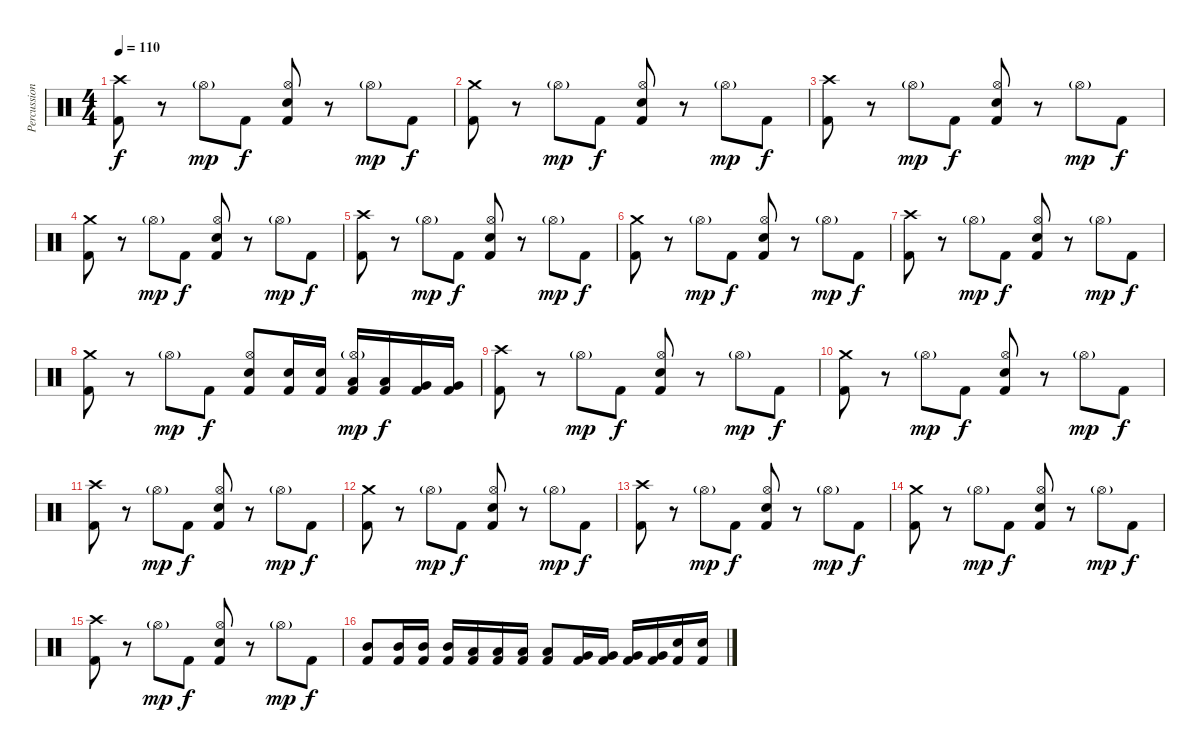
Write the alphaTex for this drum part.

\track ("Percussion" "Percussion") {instrument percussion}
\staff {score}
\articulation defaults
\ts (4 4)
\tempo 110
\clef neutral
\ks c
("Crash high (hit)" "Kick (hit) 2").8{dy f} r.8 "Hi-Hat (open)"{g}.8{dy mp} "Kick (hit) 2".8{dy f} ("Hi-Hat (open)" "Electric Snare (hit)" "Kick (hit) 2").8 r.8 "Hi-Hat (open)"{g}.8{dy mp} "Kick (hit) 2".8{dy f} |
("Crash medium (hit)" "Kick (hit) 2").8 r.8 "Hi-Hat (open)"{g}.8{dy mp} "Kick (hit) 2".8{dy f} ("Hi-Hat (open)" "Electric Snare (hit)" "Kick (hit) 2").8 r.8 "Hi-Hat (open)"{g}.8{dy mp} "Kick (hit) 2".8{dy f} |
("Crash high (hit)" "Kick (hit) 2").8 r.8 "Hi-Hat (open)"{g}.8{dy mp} "Kick (hit) 2".8{dy f} ("Hi-Hat (open)" "Electric Snare (hit)" "Kick (hit) 2").8 r.8 "Hi-Hat (open)"{g}.8{dy mp} "Kick (hit) 2".8{dy f} |
("Crash medium (hit)" "Kick (hit) 2").8 r.8 "Hi-Hat (open)"{g}.8{dy mp} "Kick (hit) 2".8{dy f} ("Hi-Hat (open)" "Electric Snare (hit)" "Kick (hit) 2").8 r.8 "Hi-Hat (open)"{g}.8{dy mp} "Kick (hit) 2".8{dy f} |
("Crash high (hit)" "Kick (hit) 2").8 r.8 "Hi-Hat (open)"{g}.8{dy mp} "Kick (hit) 2".8{dy f} ("Hi-Hat (open)" "Electric Snare (hit)" "Kick (hit) 2").8 r.8 "Hi-Hat (open)"{g}.8{dy mp} "Kick (hit) 2".8{dy f} |
("Crash medium (hit)" "Kick (hit) 2").8 r.8 "Hi-Hat (open)"{g}.8{dy mp} "Kick (hit) 2".8{dy f} ("Hi-Hat (open)" "Electric Snare (hit)" "Kick (hit) 2").8 r.8 "Hi-Hat (open)"{g}.8{dy mp} "Kick (hit) 2".8{dy f} |
("Crash high (hit)" "Kick (hit) 2").8 r.8 "Hi-Hat (open)"{g}.8{dy mp} "Kick (hit) 2".8{dy f} ("Hi-Hat (open)" "Electric Snare (hit)" "Kick (hit) 2").8 r.8 "Hi-Hat (open)"{g}.8{dy mp} "Kick (hit) 2".8{dy f} |
("Crash medium (hit)" "Kick (hit) 2").8 r.8 "Hi-Hat (open)"{g}.8{dy mp} "Kick (hit) 2".8{dy f} ("Hi-Hat (open)" "Electric Snare (hit)" "Kick (hit) 2").8 ("Electric Snare (hit)" "Kick (hit) 2").16 ("Electric Snare (hit)" "Kick (hit) 2").16 ("Hi-Hat (open)"{g} "Low Tom (hit)" "Kick (hit) 2").16{dy mp} ("Low Tom (hit)" "Kick (hit) 2").16{dy f} ("Very Low Tom (hit)" "Kick (hit) 2").16 ("Very Low Tom (hit)" "Kick (hit) 2").16 |
("Crash high (hit)" "Kick (hit) 2").8 r.8 "Hi-Hat (open)"{g}.8{dy mp} "Kick (hit) 2".8{dy f} ("Hi-Hat (open)" "Electric Snare (hit)" "Kick (hit) 2").8 r.8 "Hi-Hat (open)"{g}.8{dy mp} "Kick (hit) 2".8{dy f} |
("Crash medium (hit)" "Kick (hit) 2").8 r.8 "Hi-Hat (open)"{g}.8{dy mp} "Kick (hit) 2".8{dy f} ("Hi-Hat (open)" "Electric Snare (hit)" "Kick (hit) 2").8 r.8 "Hi-Hat (open)"{g}.8{dy mp} "Kick (hit) 2".8{dy f} |
("Crash high (hit)" "Kick (hit) 2").8 r.8 "Hi-Hat (open)"{g}.8{dy mp} "Kick (hit) 2".8{dy f} ("Hi-Hat (open)" "Electric Snare (hit)" "Kick (hit) 2").8 r.8 "Hi-Hat (open)"{g}.8{dy mp} "Kick (hit) 2".8{dy f} |
("Crash medium (hit)" "Kick (hit) 2").8 r.8 "Hi-Hat (open)"{g}.8{dy mp} "Kick (hit) 2".8{dy f} ("Hi-Hat (open)" "Electric Snare (hit)" "Kick (hit) 2").8 r.8 "Hi-Hat (open)"{g}.8{dy mp} "Kick (hit) 2".8{dy f} |
("Crash high (hit)" "Kick (hit) 2").8 r.8 "Hi-Hat (open)"{g}.8{dy mp} "Kick (hit) 2".8{dy f} ("Hi-Hat (open)" "Electric Snare (hit)" "Kick (hit) 2").8 r.8 "Hi-Hat (open)"{g}.8{dy mp} "Kick (hit) 2".8{dy f} |
("Crash medium (hit)" "Kick (hit) 2").8 r.8 "Hi-Hat (open)"{g}.8{dy mp} "Kick (hit) 2".8{dy f} ("Hi-Hat (open)" "Electric Snare (hit)" "Kick (hit) 2").8 r.8 "Hi-Hat (open)"{g}.8{dy mp} "Kick (hit) 2".8{dy f} |
("Crash high (hit)" "Kick (hit) 2").8 r.8 "Hi-Hat (open)"{g}.8{dy mp} "Kick (hit) 2".8{dy f} ("Hi-Hat (open)" "Electric Snare (hit)" "Kick (hit) 2").8 r.8 "Hi-Hat (open)"{g}.8{dy mp} "Kick (hit) 2".8{dy f} |
("Mid Tom (hit)" "Kick (hit) 2").8 ("Mid Tom (hit)" "Kick (hit) 2").16 ("Mid Tom (hit)" "Kick (hit) 2").16 ("Mid Tom (hit)" "Kick (hit) 2").16 ("Low Tom (hit)" "Kick (hit) 2").16 ("Low Tom (hit)" "Kick (hit) 2").16 ("Low Tom (hit)" "Kick (hit) 2").16 ("Low Tom (hit)" "Kick (hit) 2").8 ("Very Low Tom (hit)" "Kick (hit) 2").16 ("Very Low Tom (hit)" "Kick (hit) 2").16 ("Very Low Tom (hit)" "Kick (hit) 2").16 ("Very Low Tom (hit)" "Kick (hit) 2").16 ("Electric Snare (hit)" "Kick (hit) 2").16 ("Electric Snare (hit)" "Kick (hit) 2").16
